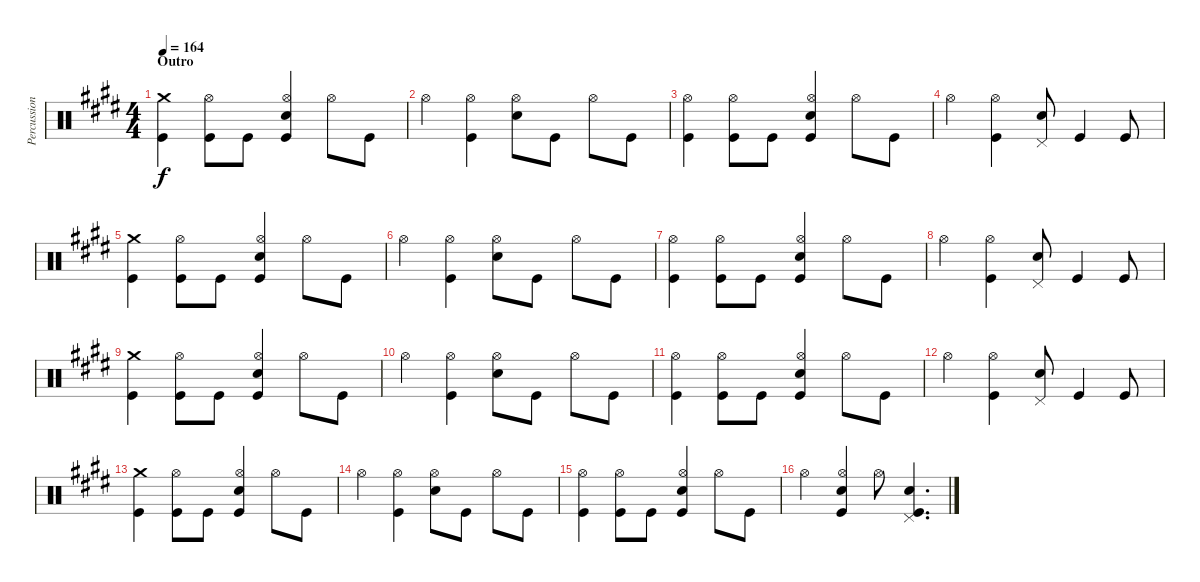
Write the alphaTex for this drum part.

\track ("Percussion" "Percussion") {instrument percussion}
\staff {score}
\articulation defaults
\ts (4 4)
\section ("" "Outro")
\tempo 164
\clef neutral
\ks e
("Crash medium (hit)" "Kick (hit)").4{dy f} ("Hi-Hat (open)" "Kick (hit)").8 "Kick (hit)".8 ("Hi-Hat (open)" "Electric Snare (hit)" "Kick (hit)").4 "Hi-Hat (open)".8 "Kick (hit)".8 |
"Hi-Hat (open)".4 ("Hi-Hat (open)" "Kick (hit)").4 ("Hi-Hat (open)" "Electric Snare (hit)").8 "Kick (hit)".8 "Hi-Hat (open)".8 "Kick (hit)".8 |
("Hi-Hat (open)" "Kick (hit)").4 ("Hi-Hat (open)" "Kick (hit)").8 "Kick (hit)".8 ("Hi-Hat (open)" "Electric Snare (hit)" "Kick (hit)").4 "Hi-Hat (open)".8 "Kick (hit)".8 |
"Hi-Hat (open)".4 ("Hi-Hat (open)" "Kick (hit)").4 ("Pedal Hi-Hat (hit)" "Electric Snare (hit)").8 "Kick (hit)".4 "Kick (hit)".8 |
("Crash medium (hit)" "Kick (hit)").4 ("Hi-Hat (open)" "Kick (hit)").8 "Kick (hit)".8 ("Hi-Hat (open)" "Electric Snare (hit)" "Kick (hit)").4 "Hi-Hat (open)".8 "Kick (hit)".8 |
"Hi-Hat (open)".4 ("Hi-Hat (open)" "Kick (hit)").4 ("Hi-Hat (open)" "Electric Snare (hit)").8 "Kick (hit)".8 "Hi-Hat (open)".8 "Kick (hit)".8 |
("Hi-Hat (open)" "Kick (hit)").4 ("Hi-Hat (open)" "Kick (hit)").8 "Kick (hit)".8 ("Hi-Hat (open)" "Electric Snare (hit)" "Kick (hit)").4 "Hi-Hat (open)".8 "Kick (hit)".8 |
"Hi-Hat (open)".4 ("Hi-Hat (open)" "Kick (hit)").4 ("Pedal Hi-Hat (hit)" "Electric Snare (hit)").8 "Kick (hit)".4 "Kick (hit)".8 |
("Crash medium (hit)" "Kick (hit)").4 ("Hi-Hat (open)" "Kick (hit)").8 "Kick (hit)".8 ("Hi-Hat (open)" "Electric Snare (hit)" "Kick (hit)").4 "Hi-Hat (open)".8 "Kick (hit)".8 |
"Hi-Hat (open)".4 ("Hi-Hat (open)" "Kick (hit)").4 ("Hi-Hat (open)" "Electric Snare (hit)").8 "Kick (hit)".8 "Hi-Hat (open)".8 "Kick (hit)".8 |
("Hi-Hat (open)" "Kick (hit)").4 ("Hi-Hat (open)" "Kick (hit)").8 "Kick (hit)".8 ("Hi-Hat (open)" "Electric Snare (hit)" "Kick (hit)").4 "Hi-Hat (open)".8 "Kick (hit)".8 |
"Hi-Hat (open)".4 ("Hi-Hat (open)" "Kick (hit)").4 ("Pedal Hi-Hat (hit)" "Electric Snare (hit)").8 "Kick (hit)".4 "Kick (hit)".8 |
("Crash medium (hit)" "Kick (hit)").4 ("Hi-Hat (open)" "Kick (hit)").8 "Kick (hit)".8 ("Hi-Hat (open)" "Electric Snare (hit)" "Kick (hit)").4 "Hi-Hat (open)".8 "Kick (hit)".8 |
"Hi-Hat (open)".4 ("Hi-Hat (open)" "Kick (hit)").4 ("Hi-Hat (open)" "Electric Snare (hit)").8 "Kick (hit)".8 "Hi-Hat (open)".8 "Kick (hit)".8 |
("Hi-Hat (open)" "Kick (hit)").4 ("Hi-Hat (open)" "Kick (hit)").8 "Kick (hit)".8 ("Hi-Hat (open)" "Electric Snare (hit)" "Kick (hit)").4 "Hi-Hat (open)".8 "Kick (hit)".8 |
"Hi-Hat (open)".4 ("Hi-Hat (open)" "Electric Snare (hit)" "Kick (hit)").4 "Hi-Hat (open)".8 ("Pedal Hi-Hat (hit)" "Electric Snare (hit)" "Kick (hit)").4{d}
